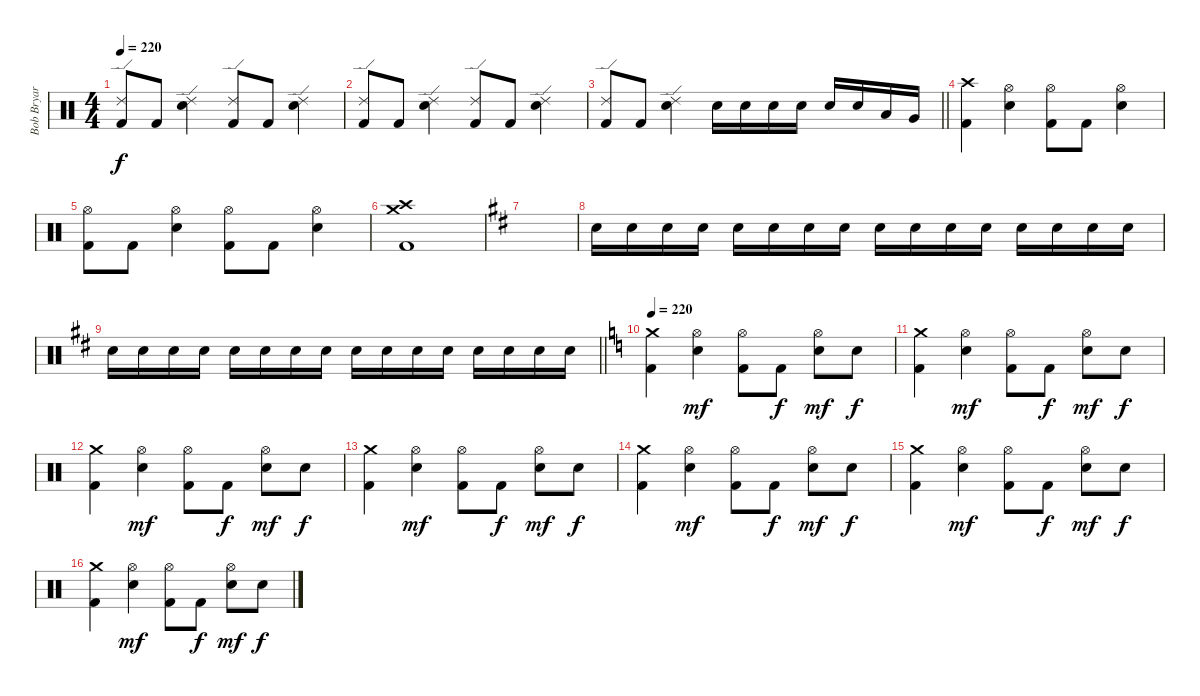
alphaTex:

\track ("Bob Bryar" "Bob Bryar") {instrument percussion}
\staff {score}
\articulation defaults
\ts (4 4)
\tempo 220
\clef neutral
\ks c
("Ride (edge) 2" "Kick (hit) 2").8{dy f} "Kick (hit) 2".8 ("Ride (edge) 2" "Electric Snare (hit)").4 ("Ride (edge) 2" "Kick (hit) 2").8 "Kick (hit) 2".8 ("Ride (edge) 2" "Electric Snare (hit)").4 |
("Ride (edge) 2" "Kick (hit) 2").8 "Kick (hit) 2".8 ("Ride (edge) 2" "Electric Snare (hit)").4 ("Ride (edge) 2" "Kick (hit) 2").8 "Kick (hit) 2".8 ("Ride (edge) 2" "Electric Snare (hit)").4 |
\barLineRight lightlight
("Ride (edge) 2" "Kick (hit) 2").8 "Kick (hit) 2".8 ("Ride (edge) 2" "Electric Snare (hit)").4 "Snare (hit) 2".16 "Snare (hit) 2".16 "Snare (hit) 2".16 "Snare (hit) 2".16 "Snare (hit) 2".16 "Snare (hit) 2".16 "Low Floor Tom (hit)".16 "Very Low Tom (hit)".16 |
("Crash high (hit)" "Kick (hit) 2").4 ("Hi-Hat (open)" "Electric Snare (hit)").4 ("Hi-Hat (open)" "Kick (hit) 2").8 "Kick (hit) 2".8 ("Hi-Hat (open)" "Electric Snare (hit)").4 |
("Hi-Hat (open)" "Kick (hit) 2").8 "Kick (hit) 2".8 ("Hi-Hat (open)" "Electric Snare (hit)").4 ("Hi-Hat (open)" "Kick (hit) 2").8 "Kick (hit) 2".8 ("Hi-Hat (open)" "Electric Snare (hit)").4 |
("Crash high (hit)" "Crash medium (hit)" "Kick (hit) 2").1 |
\ks d
|
"Electric Snare (hit)".16 "Electric Snare (hit)".16 "Electric Snare (hit)".16 "Electric Snare (hit)".16 "Electric Snare (hit)".16 "Electric Snare (hit)".16 "Electric Snare (hit)".16 "Electric Snare (hit)".16 "Electric Snare (hit)".16 "Electric Snare (hit)".16 "Electric Snare (hit)".16 "Electric Snare (hit)".16 "Electric Snare (hit)".16 "Electric Snare (hit)".16 "Electric Snare (hit)".16 "Electric Snare (hit)".16 |
\barLineRight lightlight "Electric Snare (hit)".16 "Electric Snare (hit)".16 "Electric Snare (hit)".16 "Electric Snare (hit)".16 "Electric Snare (hit)".16 "Electric Snare (hit)".16 "Electric Snare (hit)".16 "Electric Snare (hit)".16 "Electric Snare (hit)".16 "Electric Snare (hit)".16 "Electric Snare (hit)".16 "Electric Snare (hit)".16 "Electric Snare (hit)".16 "Electric Snare (hit)".16 "Electric Snare (hit)".16 "Electric Snare (hit)".16
|
\tempo 220
\ks c
("Crash medium (hit)" "Kick (hit) 2").4 ("Hi-Hat (open)" "Electric Snare (hit)").4{dy mf} ("Hi-Hat (open)" "Kick (hit) 2").8 "Kick (hit) 2".8{dy f} ("Hi-Hat (open)" "Electric Snare (hit)").8{dy mf} "Electric Snare (hit)".8{dy f} |
("Crash medium (hit)" "Kick (hit) 2").4 ("Hi-Hat (open)" "Electric Snare (hit)").4{dy mf} ("Hi-Hat (open)" "Kick (hit) 2").8 "Kick (hit) 2".8{dy f} ("Hi-Hat (open)" "Electric Snare (hit)").8{dy mf} "Electric Snare (hit)".8{dy f} |
("Crash medium (hit)" "Kick (hit) 2").4 ("Hi-Hat (open)" "Electric Snare (hit)").4{dy mf} ("Hi-Hat (open)" "Kick (hit) 2").8 "Kick (hit) 2".8{dy f} ("Hi-Hat (open)" "Electric Snare (hit)").8{dy mf} "Electric Snare (hit)".8{dy f} |
("Crash medium (hit)" "Kick (hit) 2").4 ("Hi-Hat (open)" "Electric Snare (hit)").4{dy mf} ("Hi-Hat (open)" "Kick (hit) 2").8 "Kick (hit) 2".8{dy f} ("Hi-Hat (open)" "Electric Snare (hit)").8{dy mf} "Electric Snare (hit)".8{dy f} |
("Crash medium (hit)" "Kick (hit) 2").4 ("Hi-Hat (open)" "Electric Snare (hit)").4{dy mf} ("Hi-Hat (open)" "Kick (hit) 2").8 "Kick (hit) 2".8{dy f} ("Hi-Hat (open)" "Electric Snare (hit)").8{dy mf} "Electric Snare (hit)".8{dy f} |
("Crash medium (hit)" "Kick (hit) 2").4 ("Hi-Hat (open)" "Electric Snare (hit)").4{dy mf} ("Hi-Hat (open)" "Kick (hit) 2").8 "Kick (hit) 2".8{dy f} ("Hi-Hat (open)" "Electric Snare (hit)").8{dy mf} "Electric Snare (hit)".8{dy f} |
("Crash medium (hit)" "Kick (hit) 2").4 ("Hi-Hat (open)" "Electric Snare (hit)").4{dy mf} ("Hi-Hat (open)" "Kick (hit) 2").8 "Kick (hit) 2".8{dy f} ("Hi-Hat (open)" "Electric Snare (hit)").8{dy mf} "Electric Snare (hit)".8{dy f}
